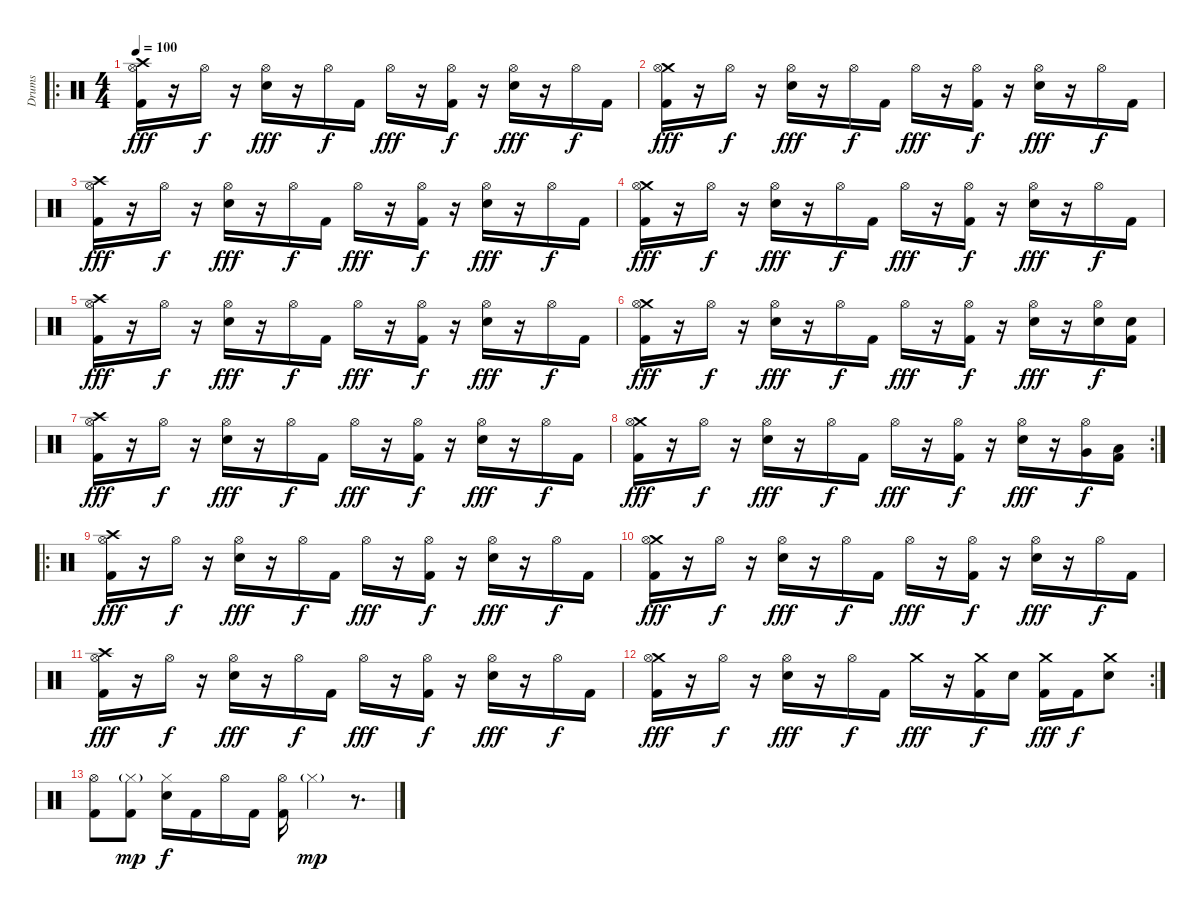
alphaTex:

\track ("Drums" "Drums") {instrument percussion}
\staff {score}
\articulation defaults
\ro
\ts (4 4)
\tempo 100
\clef neutral
\ks c
("Crash high (hit)" "Hi-Hat (open)" "Kick (hit) 2").16{dy fff} r.16 "Hi-Hat (open)".16{dy f} r.16 ("Hi-Hat (open)" "Electric Snare (hit)").16{dy fff} r.16 "Hi-Hat (open)".16{dy f} "Kick (hit) 2".16 "Hi-Hat (open)".16{dy fff} r.16 ("Hi-Hat (open)" "Kick (hit) 2").16{dy f} r.16 ("Hi-Hat (open)" "Electric Snare (hit)").16{dy fff} r.16 "Hi-Hat (open)".16{dy f} "Kick (hit) 2".16 |
("Crash medium (hit)" "Hi-Hat (open)" "Kick (hit) 2").16{dy fff} r.16 "Hi-Hat (open)".16{dy f} r.16 ("Hi-Hat (open)" "Electric Snare (hit)").16{dy fff} r.16 "Hi-Hat (open)".16{dy f} "Kick (hit) 2".16 "Hi-Hat (open)".16{dy fff} r.16 ("Hi-Hat (open)" "Kick (hit) 2").16{dy f} r.16 ("Hi-Hat (open)" "Electric Snare (hit)").16{dy fff} r.16 "Hi-Hat (open)".16{dy f} "Kick (hit) 2".16 |
("Crash high (hit)" "Hi-Hat (open)" "Kick (hit) 2").16{dy fff} r.16 "Hi-Hat (open)".16{dy f} r.16 ("Hi-Hat (open)" "Electric Snare (hit)").16{dy fff} r.16 "Hi-Hat (open)".16{dy f} "Kick (hit) 2".16 "Hi-Hat (open)".16{dy fff} r.16 ("Hi-Hat (open)" "Kick (hit) 2").16{dy f} r.16 ("Hi-Hat (open)" "Electric Snare (hit)").16{dy fff} r.16 "Hi-Hat (open)".16{dy f} "Kick (hit) 2".16 |
("Crash medium (hit)" "Hi-Hat (open)" "Kick (hit) 2").16{dy fff} r.16 "Hi-Hat (open)".16{dy f} r.16 ("Hi-Hat (open)" "Electric Snare (hit)").16{dy fff} r.16 "Hi-Hat (open)".16{dy f} "Kick (hit) 2".16 "Hi-Hat (open)".16{dy fff} r.16 ("Hi-Hat (open)" "Kick (hit) 2").16{dy f} r.16 ("Hi-Hat (open)" "Electric Snare (hit)").16{dy fff} r.16 "Hi-Hat (open)".16{dy f} "Kick (hit) 2".16 |
("Crash high (hit)" "Hi-Hat (open)" "Kick (hit) 2").16{dy fff} r.16 "Hi-Hat (open)".16{dy f} r.16 ("Hi-Hat (open)" "Electric Snare (hit)").16{dy fff} r.16 "Hi-Hat (open)".16{dy f} "Kick (hit) 2".16 "Hi-Hat (open)".16{dy fff} r.16 ("Hi-Hat (open)" "Kick (hit) 2").16{dy f} r.16 ("Hi-Hat (open)" "Electric Snare (hit)").16{dy fff} r.16 "Hi-Hat (open)".16{dy f} "Kick (hit) 2".16 |
("Crash medium (hit)" "Hi-Hat (open)" "Kick (hit) 2").16{dy fff} r.16 "Hi-Hat (open)".16{dy f} r.16 ("Hi-Hat (open)" "Electric Snare (hit)").16{dy fff} r.16 "Hi-Hat (open)".16{dy f} "Kick (hit) 2".16 "Hi-Hat (open)".16{dy fff} r.16 ("Hi-Hat (open)" "Kick (hit) 2").16{dy f} r.16 ("Hi-Hat (open)" "Electric Snare (hit)").16{dy fff} r.16 ("Hi-Hat (open)" "Electric Snare (hit)").16{dy f} ("Electric Snare (hit)" "Kick (hit) 2").16 |
("Crash high (hit)" "Hi-Hat (open)" "Kick (hit) 2").16{dy fff} r.16 "Hi-Hat (open)".16{dy f} r.16 ("Hi-Hat (open)" "Electric Snare (hit)").16{dy fff} r.16 "Hi-Hat (open)".16{dy f} "Kick (hit) 2".16 "Hi-Hat (open)".16{dy fff} r.16 ("Hi-Hat (open)" "Kick (hit) 2").16{dy f} r.16 ("Hi-Hat (open)" "Electric Snare (hit)").16{dy fff} r.16 "Hi-Hat (open)".16{dy f} "Kick (hit) 2".16 |
\rc 2
("Crash medium (hit)" "Hi-Hat (open)" "Kick (hit) 2").16{dy fff} r.16 "Hi-Hat (open)".16{dy f} r.16 ("Hi-Hat (open)" "Electric Snare (hit)").16{dy fff} r.16 "Hi-Hat (open)".16{dy f} "Kick (hit) 2".16 "Hi-Hat (open)".16{dy fff} r.16 ("Hi-Hat (open)" "Kick (hit) 2").16{dy f} r.16 ("Hi-Hat (open)" "Electric Snare (hit)").16{dy fff} r.16 ("Hi-Hat (open)" "Very Low Tom (hit)").16{dy f} ("Low Floor Tom (hit)" "Kick (hit) 2").16 |
\ro
("Crash high (hit)" "Hi-Hat (open)" "Kick (hit) 2").16{dy fff} r.16 "Hi-Hat (open)".16{dy f} r.16 ("Hi-Hat (open)" "Electric Snare (hit)").16{dy fff} r.16 "Hi-Hat (open)".16{dy f} "Kick (hit) 2".16 "Hi-Hat (open)".16{dy fff} r.16 ("Hi-Hat (open)" "Kick (hit) 2").16{dy f} r.16 ("Hi-Hat (open)" "Electric Snare (hit)").16{dy fff} r.16 "Hi-Hat (open)".16{dy f} "Kick (hit) 2".16 |
("Crash medium (hit)" "Hi-Hat (open)" "Kick (hit) 2").16{dy fff} r.16 "Hi-Hat (open)".16{dy f} r.16 ("Hi-Hat (open)" "Electric Snare (hit)").16{dy fff} r.16 "Hi-Hat (open)".16{dy f} "Kick (hit) 2".16 "Hi-Hat (open)".16{dy fff} r.16 ("Hi-Hat (open)" "Kick (hit) 2").16{dy f} r.16 ("Hi-Hat (open)" "Electric Snare (hit)").16{dy fff} r.16 "Hi-Hat (open)".16{dy f} "Kick (hit) 2".16 |
("Crash high (hit)" "Hi-Hat (open)" "Kick (hit) 2").16{dy fff} r.16 "Hi-Hat (open)".16{dy f} r.16 ("Hi-Hat (open)" "Electric Snare (hit)").16{dy fff} r.16 "Hi-Hat (open)".16{dy f} "Kick (hit) 2".16 "Hi-Hat (open)".16{dy fff} r.16 ("Hi-Hat (open)" "Kick (hit) 2").16{dy f} r.16 ("Hi-Hat (open)" "Electric Snare (hit)").16{dy fff} r.16 "Hi-Hat (open)".16{dy f} "Kick (hit) 2".16 |
\rc 2
("Crash medium (hit)" "Hi-Hat (open)" "Kick (hit) 2").16{dy fff} r.16 "Hi-Hat (open)".16{dy f} r.16 ("Hi-Hat (open)" "Electric Snare (hit)").16{dy fff} r.16 "Hi-Hat (open)".16{dy f} "Kick (hit) 2".16 "Crash medium (hit)".16{dy fff} r.16 ("Crash medium (hit)" "Kick (hit) 2").16{dy f} "Electric Snare (hit)".16 ("Crash medium (hit)" "Kick (hit) 2").16{dy fff} "Kick (hit) 2".16{dy f} ("Crash medium (hit)" "Electric Snare (hit)").8 |
("Hi-Hat (open)" "Kick (hit) 2").8 ("Hi-Hat (closed)"{g} "Kick (hit) 2").8{dy mp} ("Hi-Hat (closed)" "Electric Snare (hit)").16{dy f} "Kick (hit) 2".16 "Hi-Hat (open)".16 "Kick (hit) 2".16 ("Hi-Hat (open)" "Kick (hit) 2").16 "Hi-Hat (closed)"{g}.4{dy mp} r.8{d}
